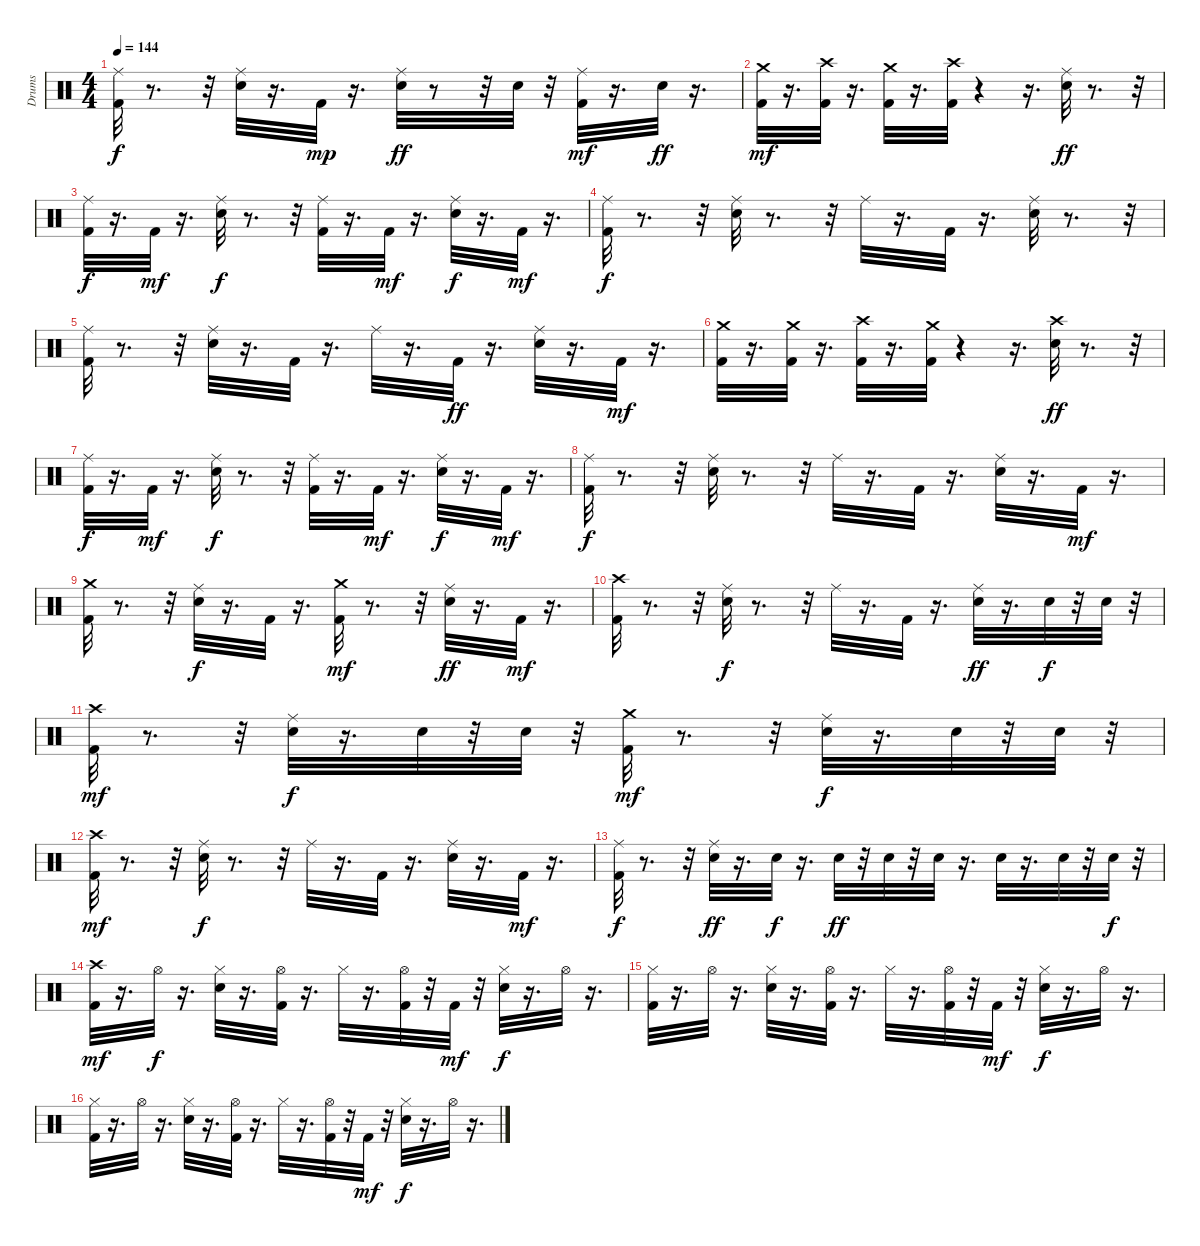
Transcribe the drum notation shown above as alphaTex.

\track ("Drums" "Drums") {instrument percussion}
\staff {score}
\articulation defaults
\ts (4 4)
\tempo 144
\clef neutral
\ks c
("Ride (middle)" "Kick (hit) 2").32{dy f} r.8{d} r.32 ("Ride (middle)" "Snare (hit) 2").32 r.16{d} "Kick (hit) 2".32{dy mp} r.16{d} ("Snare (hit) 2" "Ride (middle)").32{dy ff} r.8 r.32 "Snare (hit) 2".32 r.32 ("Kick (hit) 2" "Ride (middle)").32{dy mf} r.16{d} "Snare (hit) 2".32{dy ff} r.16{d} |
("Crash medium (hit)" "Kick (hit) 2").32{dy mf} r.16{d} ("Crash high (hit)" "Kick (hit) 2").32 r.16{d} ("Crash medium (hit)" "Kick (hit) 2").32 r.16{d} ("Crash high (hit)" "Kick (hit) 2").32 r.4 r.16{d} ("Ride (middle)" "Snare (hit) 2").32{dy ff} r.8{d} r.32 |
("Ride (middle)" "Kick (hit) 2").32{dy f} r.16{d} "Kick (hit) 2".32{dy mf} r.16{d} ("Ride (middle)" "Snare (hit) 2").32{dy f} r.8{d} r.32 ("Ride (middle)" "Kick (hit) 2").32 r.16{d} "Kick (hit) 2".32{dy mf} r.16{d} ("Ride (middle)" "Snare (hit) 2").32{dy f} r.16{d} "Kick (hit) 2".32{dy mf} r.16{d} |
("Ride (middle)" "Kick (hit) 2").32{dy f} r.8{d} r.32 ("Ride (middle)" "Snare (hit) 2").32 r.8{d} r.32 "Ride (middle)".32 r.16{d} "Kick (hit) 2".32 r.16{d} ("Ride (middle)" "Snare (hit) 2").32 r.8{d} r.32 |
("Ride (middle)" "Kick (hit) 2").32 r.8{d} r.32 ("Ride (middle)" "Snare (hit) 2").32 r.16{d} "Kick (hit) 2".32 r.16{d} "Ride (middle)".32 r.16{d} "Kick (hit) 2".32{dy ff} r.16{d} ("Ride (middle)" "Snare (hit) 2").32 r.16{d} "Kick (hit) 2".32{dy mf} r.16{d} |
("Crash medium (hit)" "Kick (hit) 2").32 r.16{d} ("Kick (hit) 2" "Crash medium (hit)").32 r.16{d} ("Crash high (hit)" "Kick (hit) 2").32 r.16{d} ("Crash medium (hit)" "Kick (hit) 2").32 r.4 r.16{d} ("Crash high (hit)" "Snare (hit) 2").32{dy ff} r.8{d} r.32 |
("Ride (middle)" "Kick (hit) 2").32{dy f} r.16{d} "Kick (hit) 2".32{dy mf} r.16{d} ("Ride (middle)" "Snare (hit) 2").32{dy f} r.8{d} r.32 ("Ride (middle)" "Kick (hit) 2").32 r.16{d} "Kick (hit) 2".32{dy mf} r.16{d} ("Ride (middle)" "Snare (hit) 2").32{dy f} r.16{d} "Kick (hit) 2".32{dy mf} r.16{d} |
("Ride (middle)" "Kick (hit) 2").32{dy f} r.8{d} r.32 ("Ride (middle)" "Snare (hit) 2").32 r.8{d} r.32 "Ride (middle)".32 r.16{d} "Kick (hit) 2".32 r.16{d} ("Ride (middle)" "Snare (hit) 2").32 r.16{d} "Kick (hit) 2".32{dy mf} r.16{d} |
("Crash medium (hit)" "Kick (hit) 2").32 r.8{d} r.32 ("Ride (middle)" "Snare (hit) 2").32{dy f} r.16{d} "Kick (hit) 2".32 r.16{d} ("Kick (hit) 2" "Crash medium (hit)").32{dy mf} r.8{d} r.32 ("Ride (middle)" "Snare (hit) 2").32{dy ff} r.16{d} "Kick (hit) 2".32{dy mf} r.16{d} |
("Crash high (hit)" "Kick (hit) 2").32 r.8{d} r.32 ("Ride (middle)" "Snare (hit) 2").32{dy f} r.8{d} r.32 "Ride (middle)".32 r.16{d} "Kick (hit) 2".32 r.16{d} ("Ride (middle)" "Snare (hit) 2").32{dy ff} r.16{d} "Snare (hit) 2".32{dy f} r.32 "Snare (hit) 2".32 r.32 |
("Crash high (hit)" "Kick (hit) 2").32{dy mf} r.8{d} r.32 ("Ride (middle)" "Snare (hit) 2").32{dy f} r.16{d} "Snare (hit) 2".32 r.32 "Snare (hit) 2".32 r.32 ("Crash medium (hit)" "Kick (hit) 2").32{dy mf} r.8{d} r.32 ("Ride (middle)" "Snare (hit) 2").32{dy f} r.16{d} "Snare (hit) 2".32 r.32 "Snare (hit) 2".32 r.32 |
("Crash high (hit)" "Kick (hit) 2").32{dy mf} r.8{d} r.32 ("Ride (middle)" "Snare (hit) 2").32{dy f} r.8{d} r.32 "Ride (middle)".32 r.16{d} "Kick (hit) 2".32 r.16{d} ("Ride (middle)" "Snare (hit) 2").32 r.16{d} "Kick (hit) 2".32{dy mf} r.16{d} |
("Ride (middle)" "Kick (hit) 2").32{dy f} r.8{d} r.32 ("Ride (middle)" "Snare (hit) 2").32{dy ff} r.16{d} "Snare (hit) 2".32{dy f} r.16{d} "Snare (hit) 2".32{dy ff} r.32 "Snare (hit) 2".32 r.32 "Snare (hit) 2".32 r.16{d} "Snare (hit) 2".32 r.16{d} "Snare (hit) 2".32 r.32 "Snare (hit) 2".32{dy f} r.32 |
("Crash high (hit)" "Kick (hit) 2").32{dy mf} r.16{d} "Hi-Hat (open)".32{dy f} r.16{d} ("Hi-Hat (closed)" "Snare (hit) 2").32 r.16{d} ("Hi-Hat (open)" "Kick (hit) 2").32 r.16{d} "Hi-Hat (closed)".32 r.16{d} ("Kick (hit) 2" "Hi-Hat (open)").32 r.32 "Kick (hit) 2".32{dy mf} r.32 ("Hi-Hat (closed)" "Snare (hit) 2").32{dy f} r.16{d} "Hi-Hat (open)".32 r.16{d} |
("Kick (hit) 2" "Hi-Hat (closed)").32 r.16{d} "Hi-Hat (open)".32 r.16{d} ("Hi-Hat (closed)" "Snare (hit) 2").32 r.16{d} ("Kick (hit) 2" "Hi-Hat (open)").32 r.16{d} "Hi-Hat (closed)".32 r.16{d} ("Kick (hit) 2" "Hi-Hat (open)").32 r.32 "Kick (hit) 2".32{dy mf} r.32 ("Hi-Hat (closed)" "Snare (hit) 2").32{dy f} r.16{d} "Hi-Hat (open)".32 r.16{d} |
("Hi-Hat (closed)" "Kick (hit) 2").32 r.16{d} "Hi-Hat (open)".32 r.16{d} ("Hi-Hat (closed)" "Snare (hit) 2").32 r.16{d} ("Hi-Hat (open)" "Kick (hit) 2").32 r.16{d} "Hi-Hat (closed)".32 r.16{d} ("Kick (hit) 2" "Hi-Hat (open)").32 r.32 "Kick (hit) 2".32{dy mf} r.32 ("Snare (hit) 2" "Hi-Hat (closed)").32{dy f} r.16{d} "Hi-Hat (open)".32 r.16{d}
